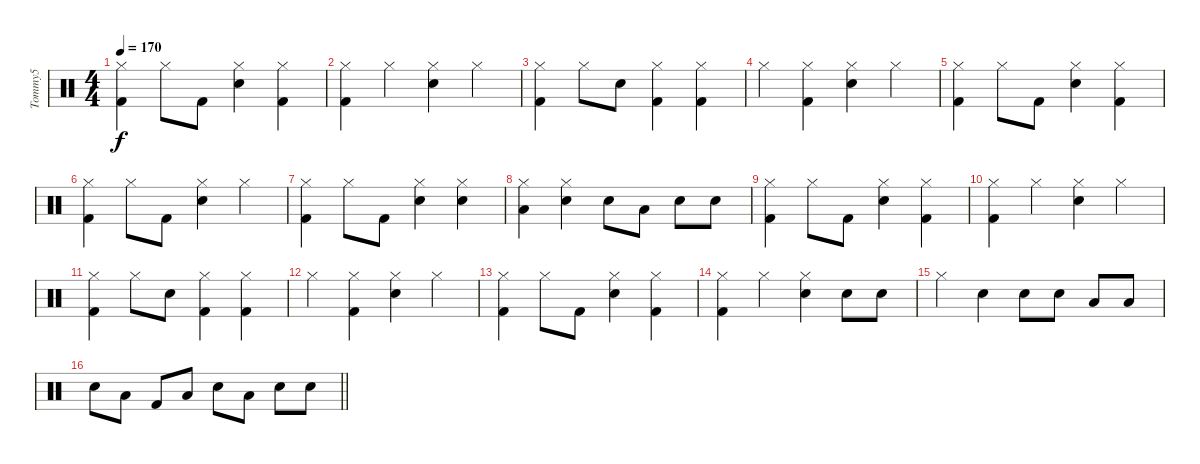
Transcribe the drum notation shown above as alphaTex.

\track ("Tommy5" "Tommy5") {instrument percussion}
\staff {score}
\articulation defaults
\ts (4 4)
\tempo 170
\clef neutral
\ks c
("Hi-Hat (closed)" "Kick (hit) 2").4{dy f} "Hi-Hat (closed)".8 "Kick (hit) 2".8 ("Hi-Hat (closed)" "Electric Snare (hit)").4 ("Hi-Hat (closed)" "Kick (hit) 2").4 |
("Hi-Hat (closed)" "Kick (hit) 2").4 "Hi-Hat (closed)".4 ("Hi-Hat (closed)" "Electric Snare (hit)").4 "Hi-Hat (closed)".4 |
("Hi-Hat (closed)" "Kick (hit) 2").4 "Hi-Hat (closed)".8 "Electric Snare (hit)".8 ("Hi-Hat (closed)" "Kick (hit) 2").4 ("Hi-Hat (closed)" "Kick (hit) 2").4 |
"Hi-Hat (closed)".4 ("Hi-Hat (closed)" "Kick (hit) 2").4 ("Hi-Hat (closed)" "Electric Snare (hit)").4 "Hi-Hat (closed)".4 |
("Hi-Hat (closed)" "Kick (hit) 2").4 "Hi-Hat (closed)".8 "Kick (hit) 2".8 ("Hi-Hat (closed)" "Electric Snare (hit)").4 ("Hi-Hat (closed)" "Kick (hit) 2").4 |
("Hi-Hat (closed)" "Kick (hit) 2").4 "Hi-Hat (closed)".8 "Kick (hit) 2".8 ("Hi-Hat (closed)" "Electric Snare (hit)").4 "Hi-Hat (closed)".4 |
("Hi-Hat (closed)" "Kick (hit) 2").4 "Hi-Hat (closed)".8 "Kick (hit) 2".8 ("Hi-Hat (closed)" "Electric Snare (hit)").4 ("Hi-Hat (closed)" "Electric Snare (hit)").4 |
("Hi-Hat (closed)" "Low Tom (hit)").4 ("Hi-Hat (closed)" "Electric Snare (hit)").4 "Electric Snare (hit)".8 "Low Tom (hit)".8 "Electric Snare (hit)".8 "Electric Snare (hit)".8 |
("Hi-Hat (closed)" "Kick (hit) 2").4 "Hi-Hat (closed)".8 "Kick (hit) 2".8 ("Hi-Hat (closed)" "Electric Snare (hit)").4 ("Hi-Hat (closed)" "Kick (hit) 2").4 |
("Hi-Hat (closed)" "Kick (hit) 2").4 "Hi-Hat (closed)".4 ("Hi-Hat (closed)" "Electric Snare (hit)").4 "Hi-Hat (closed)".4 |
("Hi-Hat (closed)" "Kick (hit) 2").4 "Hi-Hat (closed)".8 "Electric Snare (hit)".8 ("Hi-Hat (closed)" "Kick (hit) 2").4 ("Hi-Hat (closed)" "Kick (hit) 2").4 |
"Hi-Hat (closed)".4 ("Hi-Hat (closed)" "Kick (hit) 2").4 ("Hi-Hat (closed)" "Electric Snare (hit)").4 "Hi-Hat (closed)".4 |
("Hi-Hat (closed)" "Kick (hit) 2").4 "Hi-Hat (closed)".8 "Kick (hit) 2".8 ("Hi-Hat (closed)" "Electric Snare (hit)").4 ("Hi-Hat (closed)" "Kick (hit) 2").4 |
("Hi-Hat (closed)" "Kick (hit) 2").4 "Hi-Hat (closed)".4 ("Hi-Hat (closed)" "Electric Snare (hit)").4 "Electric Snare (hit)".8 "Electric Snare (hit)".8 |
"Hi-Hat (closed)".4 "Electric Snare (hit)".4 "Electric Snare (hit)".8 "Electric Snare (hit)".8 "Low Tom (hit)".8 "Low Tom (hit)".8 |
\barLineRight lightlight "Electric Snare (hit)".8 "Low Tom (hit)".8 "Kick (hit) 2".8 "Low Tom (hit)".8 "Electric Snare (hit)".8 "Low Tom (hit)".8 "Electric Snare (hit)".8 "Electric Snare (hit)".8
